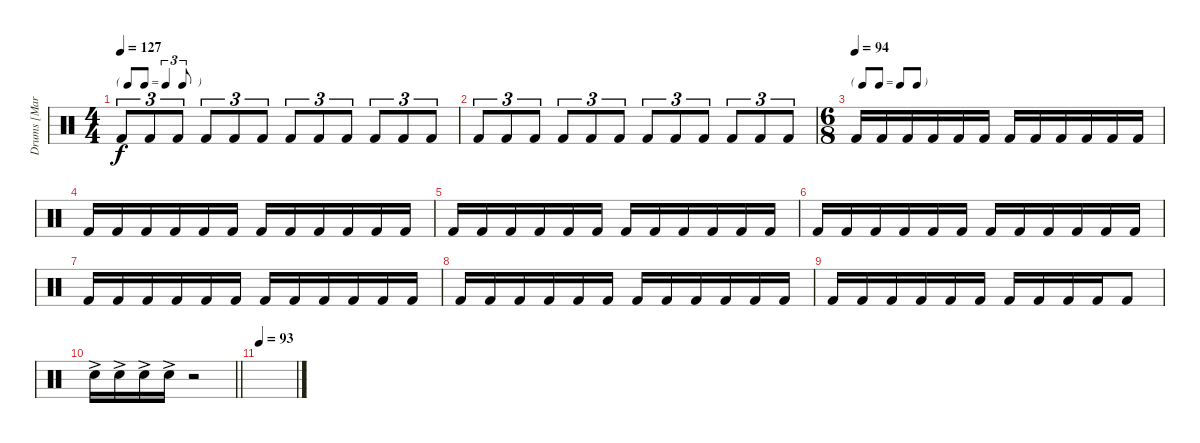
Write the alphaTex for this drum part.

\track ("Drums [Martin Lopez]" "Drums [Mar") {instrument percussion}
\staff {score}
\articulation defaults
\ts (4 4)
\tf triplet8th
\tempo 127
\clef neutral
\ks c "Kick (hit) 2".8{tu (3 2) dy f} "Kick (hit) 2".8{tu (3 2)} "Kick (hit) 2".8{tu (3 2)} "Kick (hit) 2".8{tu (3 2)} "Kick (hit) 2".8{tu (3 2)} "Kick (hit) 2".8{tu (3 2)} "Kick (hit) 2".8{tu (3 2)} "Kick (hit) 2".8{tu (3 2)} "Kick (hit) 2".8{tu (3 2)} "Kick (hit) 2".8{tu (3 2)} "Kick (hit) 2".8{tu (3 2)} "Kick (hit) 2".8{tu (3 2)}
|
"Kick (hit) 2".8{tu (3 2)} "Kick (hit) 2".8{tu (3 2)} "Kick (hit) 2".8{tu (3 2)} "Kick (hit) 2".8{tu (3 2)} "Kick (hit) 2".8{tu (3 2)} "Kick (hit) 2".8{tu (3 2)} "Kick (hit) 2".8{tu (3 2)} "Kick (hit) 2".8{tu (3 2)} "Kick (hit) 2".8{tu (3 2)} "Kick (hit) 2".8{tu (3 2)} "Kick (hit) 2".8{tu (3 2)} "Kick (hit) 2".8{tu (3 2)} |
\ts (6 8)
\tf none
\tempo (94)
"Kick (hit) 2".16 "Kick (hit) 2".16 "Kick (hit) 2".16 "Kick (hit) 2".16 "Kick (hit) 2".16 "Kick (hit) 2".16 "Kick (hit) 2".16 "Kick (hit) 2".16 "Kick (hit) 2".16 "Kick (hit) 2".16 "Kick (hit) 2".16 "Kick (hit) 2".16 |
"Kick (hit) 2".16 "Kick (hit) 2".16 "Kick (hit) 2".16 "Kick (hit) 2".16 "Kick (hit) 2".16 "Kick (hit) 2".16 "Kick (hit) 2".16 "Kick (hit) 2".16 "Kick (hit) 2".16 "Kick (hit) 2".16 "Kick (hit) 2".16 "Kick (hit) 2".16 |
"Kick (hit) 2".16 "Kick (hit) 2".16 "Kick (hit) 2".16 "Kick (hit) 2".16 "Kick (hit) 2".16 "Kick (hit) 2".16 "Kick (hit) 2".16 "Kick (hit) 2".16 "Kick (hit) 2".16 "Kick (hit) 2".16 "Kick (hit) 2".16 "Kick (hit) 2".16 |
"Kick (hit) 2".16 "Kick (hit) 2".16 "Kick (hit) 2".16 "Kick (hit) 2".16 "Kick (hit) 2".16 "Kick (hit) 2".16 "Kick (hit) 2".16 "Kick (hit) 2".16 "Kick (hit) 2".16 "Kick (hit) 2".16 "Kick (hit) 2".16 "Kick (hit) 2".16 |
"Kick (hit) 2".16 "Kick (hit) 2".16 "Kick (hit) 2".16 "Kick (hit) 2".16 "Kick (hit) 2".16 "Kick (hit) 2".16 "Kick (hit) 2".16 "Kick (hit) 2".16 "Kick (hit) 2".16 "Kick (hit) 2".16 "Kick (hit) 2".16 "Kick (hit) 2".16 |
"Kick (hit) 2".16 "Kick (hit) 2".16 "Kick (hit) 2".16 "Kick (hit) 2".16 "Kick (hit) 2".16 "Kick (hit) 2".16 "Kick (hit) 2".16 "Kick (hit) 2".16 "Kick (hit) 2".16 "Kick (hit) 2".16 "Kick (hit) 2".16 "Kick (hit) 2".16 |
"Kick (hit) 2".16 "Kick (hit) 2".16 "Kick (hit) 2".16 "Kick (hit) 2".16 "Kick (hit) 2".16 "Kick (hit) 2".16 "Kick (hit) 2".16 "Kick (hit) 2".16 "Kick (hit) 2".16 "Kick (hit) 2".16 "Kick (hit) 2".8 |
\barLineRight lightlight "Snare (hit) 2"{ac}.16 "Snare (hit) 2"{ac}.16 "Snare (hit) 2"{ac}.16 "Snare (hit) 2"{ac}.16
r.2 |
\tempo 93
